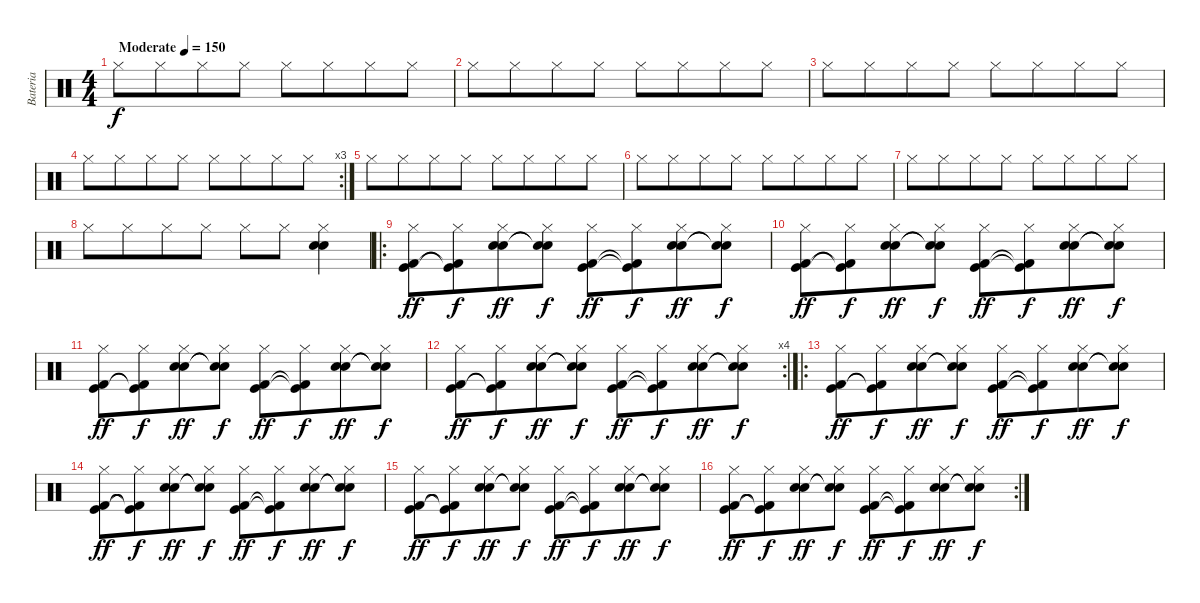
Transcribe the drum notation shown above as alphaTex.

\track ("Bateria" "Bateria") {instrument percussion}
\staff {score}
\articulation defaults
\ts (4 4)
\tempo (150 "Moderate")
\clef neutral
\ks c "Hi-Hat (closed)".8{dy f} "Hi-Hat (closed)".8{beam merge} "Hi-Hat (closed)".8 "Hi-Hat (closed)".8 "Hi-Hat (closed)".8 "Hi-Hat (closed)".8{beam merge} "Hi-Hat (closed)".8 "Hi-Hat (closed)".8
|
"Hi-Hat (closed)".8 "Hi-Hat (closed)".8{beam merge} "Hi-Hat (closed)".8 "Hi-Hat (closed)".8 "Hi-Hat (closed)".8 "Hi-Hat (closed)".8{beam merge} "Hi-Hat (closed)".8 "Hi-Hat (closed)".8 |
"Hi-Hat (closed)".8 "Hi-Hat (closed)".8{beam merge} "Hi-Hat (closed)".8 "Hi-Hat (closed)".8 "Hi-Hat (closed)".8 "Hi-Hat (closed)".8{beam merge} "Hi-Hat (closed)".8 "Hi-Hat (closed)".8 |
\rc 3 "Hi-Hat (closed)".8 "Hi-Hat (closed)".8{beam merge} "Hi-Hat (closed)".8 "Hi-Hat (closed)".8 "Hi-Hat (closed)".8 "Hi-Hat (closed)".8{beam merge} "Hi-Hat (closed)".8 "Hi-Hat (closed)".8
|
"Hi-Hat (closed)".8 "Hi-Hat (closed)".8{beam merge} "Hi-Hat (closed)".8 "Hi-Hat (closed)".8 "Hi-Hat (closed)".8 "Hi-Hat (closed)".8{beam merge} "Hi-Hat (closed)".8 "Hi-Hat (closed)".8 |
"Hi-Hat (closed)".8 "Hi-Hat (closed)".8{beam merge} "Hi-Hat (closed)".8 "Hi-Hat (closed)".8 "Hi-Hat (closed)".8 "Hi-Hat (closed)".8{beam merge} "Hi-Hat (closed)".8 "Hi-Hat (closed)".8 |
"Hi-Hat (closed)".8 "Hi-Hat (closed)".8{beam merge} "Hi-Hat (closed)".8 "Hi-Hat (closed)".8 "Hi-Hat (closed)".8 "Hi-Hat (closed)".8{beam merge} "Hi-Hat (closed)".8 "Hi-Hat (closed)".8 |
"Hi-Hat (closed)".8 "Hi-Hat (closed)".8{beam merge} "Hi-Hat (closed)".8 "Hi-Hat (closed)".8 "Hi-Hat (closed)".8 "Hi-Hat (closed)".8 ("Snare (hit) 2" "Electric Snare (hit)" "Hi-Hat (closed)").4 |
\ro
("Hi-Hat (closed)" "Kick (hit) 2" "Kick (hit)").8{dy ff} ("Hi-Hat (closed)" "Kick (hit)"{t} "Kick (hit) 2"{t}).8{dy f beam merge} ("Hi-Hat (closed)" "Snare (hit) 2" "Electric Snare (hit)").8{dy ff} ("Hi-Hat (closed)" "Snare (hit) 2"{t} "Electric Snare (hit)"{t}).8{dy f} ("Hi-Hat (closed)" "Kick (hit) 2" "Kick (hit)").8{dy ff} ("Hi-Hat (closed)" "Kick (hit) 2"{t} "Kick (hit)"{t}).8{dy f beam merge} ("Hi-Hat (closed)" "Snare (hit) 2" "Electric Snare (hit)").8{dy ff} ("Hi-Hat (closed)" "Snare (hit) 2"{t} "Electric Snare (hit)"{t}).8{dy f} |
("Hi-Hat (closed)" "Kick (hit) 2" "Kick (hit)").8{dy ff} ("Hi-Hat (closed)" "Kick (hit)"{t} "Kick (hit) 2"{t}).8{dy f beam merge} ("Hi-Hat (closed)" "Snare (hit) 2" "Electric Snare (hit)").8{dy ff} ("Hi-Hat (closed)" "Snare (hit) 2"{t} "Electric Snare (hit)"{t}).8{dy f} ("Hi-Hat (closed)" "Kick (hit) 2" "Kick (hit)").8{dy ff} ("Hi-Hat (closed)" "Kick (hit) 2"{t} "Kick (hit)"{t}).8{dy f beam merge} ("Hi-Hat (closed)" "Snare (hit) 2" "Electric Snare (hit)").8{dy ff} ("Hi-Hat (closed)" "Snare (hit) 2"{t} "Electric Snare (hit)"{t}).8{dy f} |
("Hi-Hat (closed)" "Kick (hit) 2" "Kick (hit)").8{dy ff} ("Hi-Hat (closed)" "Kick (hit)"{t} "Kick (hit) 2"{t}).8{dy f beam merge} ("Hi-Hat (closed)" "Snare (hit) 2" "Electric Snare (hit)").8{dy ff} ("Hi-Hat (closed)" "Snare (hit) 2"{t} "Electric Snare (hit)"{t}).8{dy f} ("Hi-Hat (closed)" "Kick (hit) 2" "Kick (hit)").8{dy ff} ("Hi-Hat (closed)" "Kick (hit) 2"{t} "Kick (hit)"{t}).8{dy f beam merge} ("Hi-Hat (closed)" "Snare (hit) 2" "Electric Snare (hit)").8{dy ff} ("Hi-Hat (closed)" "Snare (hit) 2"{t} "Electric Snare (hit)"{t}).8{dy f} |
\rc 4
("Hi-Hat (closed)" "Kick (hit) 2" "Kick (hit)").8{dy ff} ("Hi-Hat (closed)" "Kick (hit)"{t} "Kick (hit) 2"{t}).8{dy f beam merge} ("Hi-Hat (closed)" "Snare (hit) 2" "Electric Snare (hit)").8{dy ff} ("Hi-Hat (closed)" "Snare (hit) 2"{t} "Electric Snare (hit)"{t}).8{dy f} ("Hi-Hat (closed)" "Kick (hit) 2" "Kick (hit)").8{dy ff} ("Hi-Hat (closed)" "Kick (hit) 2"{t} "Kick (hit)"{t}).8{dy f beam merge} ("Hi-Hat (closed)" "Snare (hit) 2" "Electric Snare (hit)").8{dy ff} ("Hi-Hat (closed)" "Snare (hit) 2"{t} "Electric Snare (hit)"{t}).8{dy f} |
\ro
("Hi-Hat (closed)" "Kick (hit) 2" "Kick (hit)").8{dy ff} ("Hi-Hat (closed)" "Kick (hit)"{t} "Kick (hit) 2"{t}).8{dy f beam merge} ("Hi-Hat (closed)" "Snare (hit) 2" "Electric Snare (hit)").8{dy ff} ("Hi-Hat (closed)" "Snare (hit) 2"{t} "Electric Snare (hit)"{t}).8{dy f} ("Hi-Hat (closed)" "Kick (hit) 2" "Kick (hit)").8{dy ff} ("Hi-Hat (closed)" "Kick (hit) 2"{t} "Kick (hit)"{t}).8{dy f beam merge} ("Hi-Hat (closed)" "Snare (hit) 2" "Electric Snare (hit)").8{dy ff} ("Hi-Hat (closed)" "Snare (hit) 2"{t} "Electric Snare (hit)"{t}).8{dy f} |
("Hi-Hat (closed)" "Kick (hit) 2" "Kick (hit)").8{dy ff} ("Hi-Hat (closed)" "Kick (hit)"{t} "Kick (hit) 2"{t}).8{dy f beam merge} ("Hi-Hat (closed)" "Snare (hit) 2" "Electric Snare (hit)").8{dy ff} ("Hi-Hat (closed)" "Snare (hit) 2"{t} "Electric Snare (hit)"{t}).8{dy f} ("Hi-Hat (closed)" "Kick (hit) 2" "Kick (hit)").8{dy ff} ("Hi-Hat (closed)" "Kick (hit) 2"{t} "Kick (hit)"{t}).8{dy f beam merge} ("Hi-Hat (closed)" "Snare (hit) 2" "Electric Snare (hit)").8{dy ff} ("Hi-Hat (closed)" "Snare (hit) 2"{t} "Electric Snare (hit)"{t}).8{dy f} |
("Hi-Hat (closed)" "Kick (hit) 2" "Kick (hit)").8{dy ff} ("Hi-Hat (closed)" "Kick (hit)"{t} "Kick (hit) 2"{t}).8{dy f beam merge} ("Hi-Hat (closed)" "Snare (hit) 2" "Electric Snare (hit)").8{dy ff} ("Hi-Hat (closed)" "Snare (hit) 2"{t} "Electric Snare (hit)"{t}).8{dy f} ("Hi-Hat (closed)" "Kick (hit) 2" "Kick (hit)").8{dy ff} ("Hi-Hat (closed)" "Kick (hit) 2"{t} "Kick (hit)"{t}).8{dy f beam merge} ("Hi-Hat (closed)" "Snare (hit) 2" "Electric Snare (hit)").8{dy ff} ("Hi-Hat (closed)" "Snare (hit) 2"{t} "Electric Snare (hit)"{t}).8{dy f} |
\rc 2
("Hi-Hat (closed)" "Kick (hit) 2" "Kick (hit)").8{dy ff} ("Hi-Hat (closed)" "Kick (hit)"{t} "Kick (hit) 2"{t}).8{dy f beam merge} ("Hi-Hat (closed)" "Snare (hit) 2" "Electric Snare (hit)").8{dy ff} ("Hi-Hat (closed)" "Snare (hit) 2"{t} "Electric Snare (hit)"{t}).8{dy f} ("Hi-Hat (closed)" "Kick (hit) 2" "Kick (hit)").8{dy ff} ("Hi-Hat (closed)" "Kick (hit) 2"{t} "Kick (hit)"{t}).8{dy f beam merge} ("Hi-Hat (closed)" "Snare (hit) 2" "Electric Snare (hit)").8{dy ff} ("Hi-Hat (closed)" "Snare (hit) 2"{t} "Electric Snare (hit)"{t}).8{dy f}
